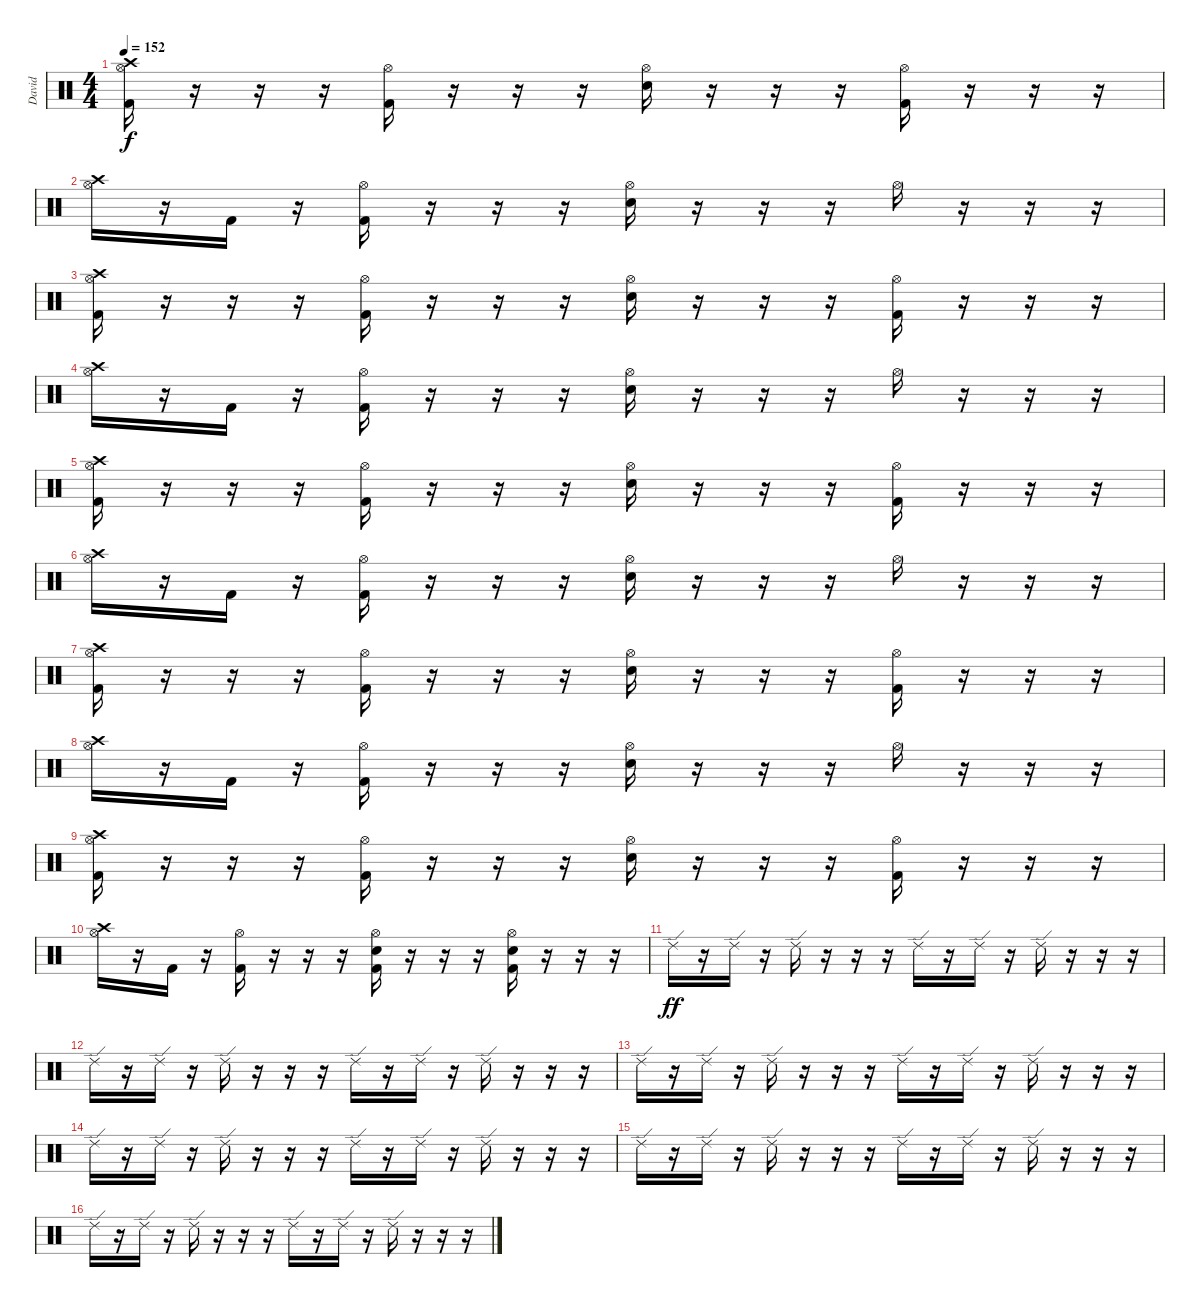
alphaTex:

\track ("David" "David") {instrument percussion}
\staff {score}
\articulation defaults
\ts (4 4)
\tempo 152
\clef neutral
\ks c
("Crash high (hit)" "Hi-Hat (open)" "Kick (hit) 2").16{dy f} r.16 r.16 r.16 ("Hi-Hat (open)" "Kick (hit) 2").16 r.16 r.16 r.16 ("Hi-Hat (open)" "Electric Snare (hit)").16 r.16 r.16 r.16 ("Hi-Hat (open)" "Kick (hit) 2").16 r.16 r.16 r.16 |
("Crash high (hit)" "Hi-Hat (open)").16 r.16 "Kick (hit) 2".16 r.16 ("Hi-Hat (open)" "Kick (hit) 2").16 r.16 r.16 r.16 ("Hi-Hat (open)" "Electric Snare (hit)").16 r.16 r.16 r.16 "Hi-Hat (open)".16 r.16 r.16 r.16 |
("Crash high (hit)" "Hi-Hat (open)" "Kick (hit) 2").16 r.16 r.16 r.16 ("Hi-Hat (open)" "Kick (hit) 2").16 r.16 r.16 r.16 ("Hi-Hat (open)" "Electric Snare (hit)").16 r.16 r.16 r.16 ("Hi-Hat (open)" "Kick (hit) 2").16 r.16 r.16 r.16 |
("Crash high (hit)" "Hi-Hat (open)").16 r.16 "Kick (hit) 2".16 r.16 ("Hi-Hat (open)" "Kick (hit) 2").16 r.16 r.16 r.16 ("Hi-Hat (open)" "Electric Snare (hit)").16 r.16 r.16 r.16 "Hi-Hat (open)".16 r.16 r.16 r.16 |
("Crash high (hit)" "Hi-Hat (open)" "Kick (hit) 2").16 r.16 r.16 r.16 ("Hi-Hat (open)" "Kick (hit) 2").16 r.16 r.16 r.16 ("Hi-Hat (open)" "Electric Snare (hit)").16 r.16 r.16 r.16 ("Hi-Hat (open)" "Kick (hit) 2").16 r.16 r.16 r.16 |
("Crash high (hit)" "Hi-Hat (open)").16 r.16 "Kick (hit) 2".16 r.16 ("Hi-Hat (open)" "Kick (hit) 2").16 r.16 r.16 r.16 ("Hi-Hat (open)" "Electric Snare (hit)").16 r.16 r.16 r.16 "Hi-Hat (open)".16 r.16 r.16 r.16 |
("Crash high (hit)" "Hi-Hat (open)" "Kick (hit) 2").16 r.16 r.16 r.16 ("Hi-Hat (open)" "Kick (hit) 2").16 r.16 r.16 r.16 ("Hi-Hat (open)" "Electric Snare (hit)").16 r.16 r.16 r.16 ("Hi-Hat (open)" "Kick (hit) 2").16 r.16 r.16 r.16 |
("Crash high (hit)" "Hi-Hat (open)").16 r.16 "Kick (hit) 2".16 r.16 ("Hi-Hat (open)" "Kick (hit) 2").16 r.16 r.16 r.16 ("Hi-Hat (open)" "Electric Snare (hit)").16 r.16 r.16 r.16 "Hi-Hat (open)".16 r.16 r.16 r.16 |
("Crash high (hit)" "Hi-Hat (open)" "Kick (hit) 2").16 r.16 r.16 r.16 ("Hi-Hat (open)" "Kick (hit) 2").16 r.16 r.16 r.16 ("Hi-Hat (open)" "Electric Snare (hit)").16 r.16 r.16 r.16 ("Hi-Hat (open)" "Kick (hit) 2").16 r.16 r.16 r.16 |
("Crash high (hit)" "Hi-Hat (open)").16 r.16 "Kick (hit) 2".16 r.16 ("Hi-Hat (open)" "Kick (hit) 2").16 r.16 r.16 r.16 ("Hi-Hat (open)" "Electric Snare (hit)" "Kick (hit) 2").16 r.16 r.16 r.16 ("Hi-Hat (open)" "Electric Snare (hit)" "Kick (hit) 2").16 r.16 r.16 r.16 |
"Ride (edge) 2".16{dy ff} r.16 "Ride (edge) 2".16 r.16 "Ride (edge) 2".16 r.16 r.16 r.16 "Ride (edge) 2".16 r.16 "Ride (edge) 2".16 r.16 "Ride (edge) 2".16 r.16 r.16 r.16 |
"Ride (edge) 2".16 r.16 "Ride (edge) 2".16 r.16 "Ride (edge) 2".16 r.16 r.16 r.16 "Ride (edge) 2".16 r.16 "Ride (edge) 2".16 r.16 "Ride (edge) 2".16 r.16 r.16 r.16 |
"Ride (edge) 2".16 r.16 "Ride (edge) 2".16 r.16 "Ride (edge) 2".16 r.16 r.16 r.16 "Ride (edge) 2".16 r.16 "Ride (edge) 2".16 r.16 "Ride (edge) 2".16 r.16 r.16 r.16 |
"Ride (edge) 2".16 r.16 "Ride (edge) 2".16 r.16 "Ride (edge) 2".16 r.16 r.16 r.16 "Ride (edge) 2".16 r.16 "Ride (edge) 2".16 r.16 "Ride (edge) 2".16 r.16 r.16 r.16 |
"Ride (edge) 2".16 r.16 "Ride (edge) 2".16 r.16 "Ride (edge) 2".16 r.16 r.16 r.16 "Ride (edge) 2".16 r.16 "Ride (edge) 2".16 r.16 "Ride (edge) 2".16 r.16 r.16 r.16 |
"Ride (edge) 2".16 r.16 "Ride (edge) 2".16 r.16 "Ride (edge) 2".16 r.16 r.16 r.16 "Ride (edge) 2".16 r.16 "Ride (edge) 2".16 r.16 "Ride (edge) 2".16 r.16 r.16 r.16
